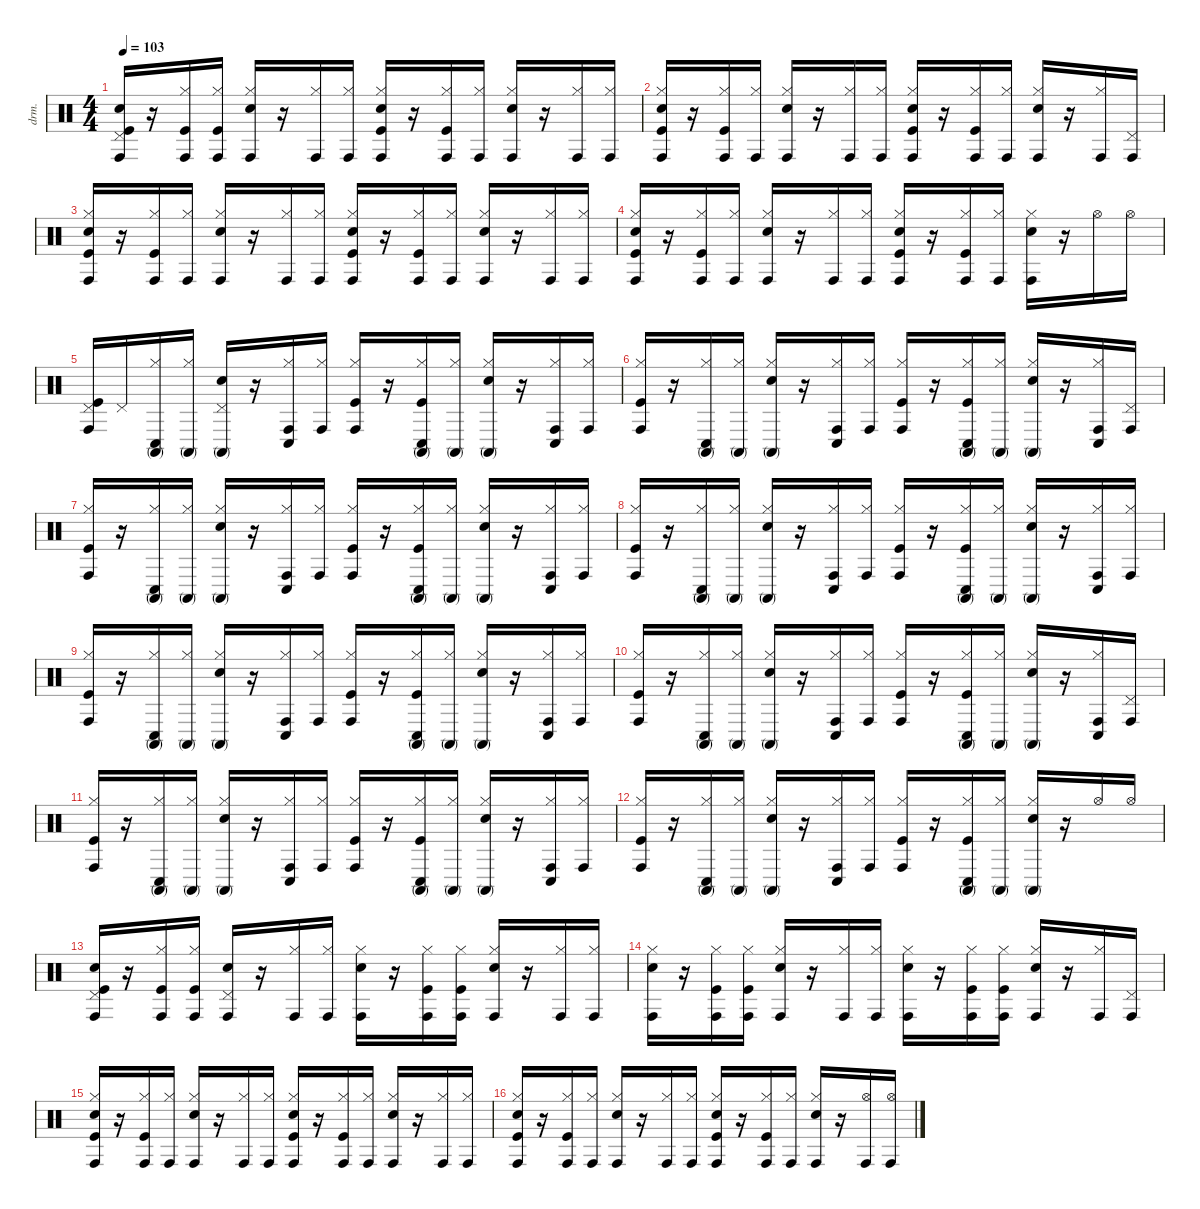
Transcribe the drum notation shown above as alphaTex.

\defaultSystemsLayout 4
\hideDynamics
\bracketExtendMode nobrackets
\otherSystemsTrackNameOrientation horizontal
\track ("drums" "drm.") {instrument percussion}
\staff {score}
\articulation defaults
\ts (4 4)
\tempo 103
\clef neutral
\ks c
("Kick (hit)" "Snare (hit) 2" "Pedal Hi-Hat (hit)" "Conga high (hit)").16{dy f} r.16 ("Kick (hit)" "Hi-Hat (closed)" "Conga high (hit)").16 ("Kick (hit)" "Hi-Hat (closed)" "Conga high (hit)").16 ("Snare (hit) 2" "Hi-Hat (closed)" "Conga high (hit)").16 r.16 ("Hi-Hat (closed)" "Conga high (hit)").16 ("Hi-Hat (closed)" "Conga high (hit)").16 ("Kick (hit)" "Snare (hit) 2" "Hi-Hat (closed)" "Conga high (hit)").16 r.16 ("Kick (hit)" "Hi-Hat (closed)" "Conga high (hit)").16 ("Hi-Hat (closed)" "Conga high (hit)").16 ("Snare (hit) 2" "Hi-Hat (closed)" "Conga high (hit)").16 r.16 ("Hi-Hat (closed)" "Conga high (hit)").16 ("Hi-Hat (closed)" "Conga high (hit)").16 |
("Kick (hit)" "Snare (hit) 2" "Hi-Hat (closed)" "Conga high (hit)").16 r.16 ("Kick (hit)" "Hi-Hat (closed)" "Conga high (hit)").16 ("Hi-Hat (closed)" "Conga high (hit)").16 ("Snare (hit) 2" "Hi-Hat (closed)" "Conga high (hit)").16 r.16 ("Hi-Hat (closed)" "Conga high (hit)").16 ("Hi-Hat (closed)" "Conga high (hit)").16 ("Kick (hit)" "Snare (hit) 2" "Hi-Hat (closed)" "Conga high (hit)").16 r.16 ("Kick (hit)" "Hi-Hat (closed)" "Conga high (hit)").16 ("Hi-Hat (closed)" "Conga high (hit)").16 ("Snare (hit) 2" "Hi-Hat (closed)" "Conga high (hit)").16 r.16 ("Hi-Hat (closed)" "Conga high (hit)").16 ("Pedal Hi-Hat (hit)" "Conga high (hit)").16 |
("Kick (hit)" "Snare (hit) 2" "Hi-Hat (closed)" "Conga high (hit)").16 r.16 ("Kick (hit)" "Hi-Hat (closed)" "Conga high (hit)").16 ("Hi-Hat (closed)" "Conga high (hit)").16 ("Snare (hit) 2" "Hi-Hat (closed)" "Conga high (hit)").16 r.16 ("Hi-Hat (closed)" "Conga high (hit)").16 ("Hi-Hat (closed)" "Conga high (hit)").16 ("Kick (hit)" "Snare (hit) 2" "Hi-Hat (closed)" "Conga high (hit)").16 r.16 ("Kick (hit)" "Hi-Hat (closed)" "Conga high (hit)").16 ("Hi-Hat (closed)" "Conga high (hit)").16 ("Snare (hit) 2" "Hi-Hat (closed)" "Conga high (hit)").16 r.16 ("Hi-Hat (closed)" "Conga high (hit)").16 ("Hi-Hat (closed)" "Conga high (hit)").16 |
("Kick (hit)" "Snare (hit) 2" "Hi-Hat (closed)" "Conga high (hit)").16 r.16 ("Kick (hit)" "Hi-Hat (closed)" "Conga high (hit)").16 ("Hi-Hat (closed)" "Conga high (hit)").16 ("Snare (hit) 2" "Hi-Hat (closed)" "Conga high (hit)").16 r.16 ("Hi-Hat (closed)" "Conga high (hit)").16 ("Hi-Hat (closed)" "Conga high (hit)").16 ("Kick (hit)" "Snare (hit) 2" "Hi-Hat (closed)" "Conga high (hit)").16 r.16 ("Kick (hit)" "Hi-Hat (closed)" "Conga high (hit)").16 ("Hi-Hat (closed)" "Conga high (hit)").16 ("Hi-Hat (closed)" "Conga high (hit)" "Snare (hit) 2").16 r.16 "Hi-Hat (open)".16 "Hi-Hat (open)".16 |
("Kick (hit)" "Pedal Hi-Hat (hit)" "Conga high (hit)").16 "Pedal Hi-Hat (hit)".16 ("Conga high (mute)" "Conga low (hit)" "Hi-Hat (closed)").16 ("Conga high (mute)" "Hi-Hat (closed)").16 ("Conga high (mute)" "Snare (hit) 2" "Pedal Hi-Hat (hit)").16 r.16 ("Hi-Hat (closed)" "Conga low (hit)" "Conga high (hit)").16 ("Hi-Hat (closed)" "Conga high (hit)").16 ("Kick (hit)" "Hi-Hat (closed)" "Conga high (hit)").16 r.16 ("Kick (hit)" "Conga low (hit)" "Conga high (mute)" "Hi-Hat (closed)").16 ("Conga high (mute)" "Hi-Hat (closed)").16 ("Conga high (mute)" "Snare (hit) 2" "Hi-Hat (closed)").16 r.16 ("Hi-Hat (closed)" "Conga low (hit)" "Conga high (hit)").16 ("Hi-Hat (closed)" "Conga high (hit)").16 |
("Kick (hit)" "Hi-Hat (closed)" "Conga high (hit)").16 r.16 ("Conga low (hit)" "Conga high (mute)" "Hi-Hat (closed)").16 ("Conga high (mute)" "Hi-Hat (closed)").16 ("Conga high (mute)" "Snare (hit) 2" "Hi-Hat (closed)").16 r.16 ("Hi-Hat (closed)" "Conga low (hit)" "Conga high (hit)").16 ("Hi-Hat (closed)" "Conga high (hit)").16 ("Kick (hit)" "Hi-Hat (closed)" "Conga high (hit)").16 r.16 ("Kick (hit)" "Conga low (hit)" "Conga high (mute)" "Hi-Hat (closed)").16 ("Conga high (mute)" "Hi-Hat (closed)").16 ("Conga high (mute)" "Snare (hit) 2" "Hi-Hat (closed)").16 r.16 ("Hi-Hat (closed)" "Conga low (hit)" "Conga high (hit)").16 ("Pedal Hi-Hat (hit)" "Conga high (hit)").16 |
("Kick (hit)" "Hi-Hat (closed)" "Conga high (hit)").16 r.16 ("Conga low (hit)" "Conga high (mute)" "Hi-Hat (closed)").16 ("Conga high (mute)" "Hi-Hat (closed)").16 ("Conga high (mute)" "Snare (hit) 2" "Hi-Hat (closed)").16 r.16 ("Hi-Hat (closed)" "Conga low (hit)" "Conga high (hit)").16 ("Hi-Hat (closed)" "Conga high (hit)").16 ("Kick (hit)" "Hi-Hat (closed)" "Conga high (hit)").16 r.16 ("Kick (hit)" "Conga low (hit)" "Conga high (mute)" "Hi-Hat (closed)").16 ("Conga high (mute)" "Hi-Hat (closed)").16 ("Conga high (mute)" "Snare (hit) 2" "Hi-Hat (closed)").16 r.16 ("Hi-Hat (closed)" "Conga low (hit)" "Conga high (hit)").16 ("Hi-Hat (closed)" "Conga high (hit)").16 |
("Kick (hit)" "Hi-Hat (closed)" "Conga high (hit)").16 r.16 ("Conga low (hit)" "Conga high (mute)" "Hi-Hat (closed)").16 ("Conga high (mute)" "Hi-Hat (closed)").16 ("Conga high (mute)" "Snare (hit) 2" "Hi-Hat (closed)").16 r.16 ("Hi-Hat (closed)" "Conga low (hit)" "Conga high (hit)").16 ("Hi-Hat (closed)" "Conga high (hit)").16 ("Kick (hit)" "Hi-Hat (closed)" "Conga high (hit)").16 r.16 ("Kick (hit)" "Conga low (hit)" "Conga high (mute)" "Hi-Hat (closed)").16 ("Conga high (mute)" "Hi-Hat (closed)").16 ("Conga high (mute)" "Snare (hit) 2" "Hi-Hat (closed)").16 r.16 ("Hi-Hat (closed)" "Conga low (hit)" "Conga high (hit)").16 ("Hi-Hat (closed)" "Conga high (hit)").16 |
("Kick (hit)" "Hi-Hat (closed)" "Conga high (hit)").16 r.16 ("Conga low (hit)" "Conga high (mute)" "Hi-Hat (closed)").16 ("Conga high (mute)" "Hi-Hat (closed)").16 ("Conga high (mute)" "Snare (hit) 2" "Hi-Hat (closed)").16 r.16 ("Hi-Hat (closed)" "Conga low (hit)" "Conga high (hit)").16 ("Hi-Hat (closed)" "Conga high (hit)").16 ("Kick (hit)" "Hi-Hat (closed)" "Conga high (hit)").16 r.16 ("Kick (hit)" "Conga low (hit)" "Conga high (mute)" "Hi-Hat (closed)").16 ("Conga high (mute)" "Hi-Hat (closed)").16 ("Conga high (mute)" "Snare (hit) 2" "Hi-Hat (closed)").16 r.16 ("Hi-Hat (closed)" "Conga low (hit)" "Conga high (hit)").16 ("Hi-Hat (closed)" "Conga high (hit)").16 |
("Kick (hit)" "Hi-Hat (closed)" "Conga high (hit)").16 r.16 ("Conga low (hit)" "Conga high (mute)" "Hi-Hat (closed)").16 ("Conga high (mute)" "Hi-Hat (closed)").16 ("Conga high (mute)" "Snare (hit) 2" "Hi-Hat (closed)").16 r.16 ("Hi-Hat (closed)" "Conga low (hit)" "Conga high (hit)").16 ("Hi-Hat (closed)" "Conga high (hit)").16 ("Kick (hit)" "Hi-Hat (closed)" "Conga high (hit)").16 r.16 ("Kick (hit)" "Conga low (hit)" "Conga high (mute)" "Hi-Hat (closed)").16 ("Conga high (mute)" "Hi-Hat (closed)").16 ("Conga high (mute)" "Snare (hit) 2" "Hi-Hat (closed)").16 r.16 ("Hi-Hat (closed)" "Conga low (hit)" "Conga high (hit)").16 ("Pedal Hi-Hat (hit)" "Conga high (hit)").16 |
("Kick (hit)" "Hi-Hat (closed)" "Conga high (hit)").16 r.16 ("Conga low (hit)" "Conga high (mute)" "Hi-Hat (closed)").16 ("Conga high (mute)" "Hi-Hat (closed)").16 ("Conga high (mute)" "Snare (hit) 2" "Hi-Hat (closed)").16 r.16 ("Hi-Hat (closed)" "Conga low (hit)" "Conga high (hit)").16 ("Hi-Hat (closed)" "Conga high (hit)").16 ("Kick (hit)" "Hi-Hat (closed)" "Conga high (hit)").16 r.16 ("Kick (hit)" "Conga low (hit)" "Conga high (mute)" "Hi-Hat (closed)").16 ("Conga high (mute)" "Hi-Hat (closed)").16 ("Conga high (mute)" "Snare (hit) 2" "Hi-Hat (closed)").16 r.16 ("Hi-Hat (closed)" "Conga low (hit)" "Conga high (hit)").16 ("Hi-Hat (closed)" "Conga high (hit)").16 |
("Kick (hit)" "Hi-Hat (closed)" "Conga high (hit)").16 r.16 ("Conga low (hit)" "Conga high (mute)" "Hi-Hat (closed)").16 ("Conga high (mute)" "Hi-Hat (closed)").16 ("Conga high (mute)" "Snare (hit) 2" "Hi-Hat (closed)").16 r.16 ("Conga low (hit)" "Hi-Hat (closed)" "Conga high (hit)").16 ("Hi-Hat (closed)" "Conga high (hit)").16 ("Kick (hit)" "Hi-Hat (closed)" "Conga high (hit)").16 r.16 ("Conga low (hit)" "Conga high (mute)" "Kick (hit)" "Hi-Hat (closed)").16 ("Conga high (mute)" "Hi-Hat (closed)").16 ("Conga high (mute)" "Hi-Hat (closed)" "Snare (hit) 2").16 r.16 "Hi-Hat (open)".16 "Hi-Hat (open)".16 |
("Kick (hit)" "Snare (hit) 2" "Pedal Hi-Hat (hit)" "Conga high (hit)").16 r.16 ("Kick (hit)" "Hi-Hat (closed)" "Conga high (hit)").16 ("Kick (hit)" "Hi-Hat (closed)" "Conga high (hit)").16 ("Snare (hit) 2" "Pedal Hi-Hat (hit)" "Conga high (hit)").16 r.16 ("Hi-Hat (closed)" "Conga high (hit)").16 ("Hi-Hat (closed)" "Conga high (hit)").16 ("Snare (hit) 2" "Hi-Hat (closed)" "Conga high (hit)").16 r.16 ("Kick (hit)" "Hi-Hat (closed)" "Conga high (hit)").16 ("Kick (hit)" "Hi-Hat (closed)" "Conga high (hit)").16 ("Snare (hit) 2" "Hi-Hat (closed)" "Conga high (hit)").16 r.16 ("Hi-Hat (closed)" "Conga high (hit)").16 ("Hi-Hat (closed)" "Conga high (hit)").16 |
("Hi-Hat (closed)" "Conga high (hit)" "Snare (hit) 2").16 r.16 ("Kick (hit)" "Hi-Hat (closed)" "Conga high (hit)").16 ("Kick (hit)" "Hi-Hat (closed)" "Conga high (hit)").16 ("Snare (hit) 2" "Hi-Hat (closed)" "Conga high (hit)").16 r.16 ("Hi-Hat (closed)" "Conga high (hit)").16 ("Hi-Hat (closed)" "Conga high (hit)").16 ("Hi-Hat (closed)" "Conga high (hit)" "Snare (hit) 2").16 r.16 ("Kick (hit)" "Hi-Hat (closed)" "Conga high (hit)").16 ("Kick (hit)" "Hi-Hat (closed)" "Conga high (hit)").16 ("Snare (hit) 2" "Hi-Hat (closed)" "Conga high (hit)").16 r.16 ("Hi-Hat (closed)" "Conga high (hit)").16 ("Pedal Hi-Hat (hit)" "Conga high (hit)").16 |
("Kick (hit)" "Hi-Hat (closed)" "Conga high (hit)" "Snare (hit) 2").16 r.16 ("Kick (hit)" "Hi-Hat (closed)" "Conga high (hit)").16 ("Hi-Hat (closed)" "Conga high (hit)").16 ("Snare (hit) 2" "Hi-Hat (closed)" "Conga high (hit)").16 r.16 ("Hi-Hat (closed)" "Conga high (hit)").16 ("Hi-Hat (closed)" "Conga high (hit)").16 ("Kick (hit)" "Hi-Hat (closed)" "Conga high (hit)" "Snare (hit) 2").16 r.16 ("Kick (hit)" "Hi-Hat (closed)" "Conga high (hit)").16 ("Hi-Hat (closed)" "Conga high (hit)").16 ("Snare (hit) 2" "Hi-Hat (closed)" "Conga high (hit)").16 r.16 ("Hi-Hat (closed)" "Conga high (hit)").16 ("Hi-Hat (closed)" "Conga high (hit)").16 |
("Kick (hit)" "Snare (hit) 2" "Hi-Hat (closed)" "Conga high (hit)").16 r.16 ("Kick (hit)" "Hi-Hat (closed)" "Conga high (hit)").16 ("Hi-Hat (closed)" "Conga high (hit)").16 ("Snare (hit) 2" "Hi-Hat (closed)" "Conga high (hit)").16 r.16 ("Hi-Hat (closed)" "Conga high (hit)").16 ("Hi-Hat (closed)" "Conga high (hit)").16 ("Kick (hit)" "Snare (hit) 2" "Hi-Hat (closed)" "Conga high (hit)").16 r.16 ("Kick (hit)" "Hi-Hat (closed)" "Conga high (hit)").16 ("Hi-Hat (closed)" "Conga high (hit)").16 ("Snare (hit) 2" "Hi-Hat (closed)" "Conga high (hit)").16 r.16 ("Hi-Hat (open)" "Conga high (hit)").16 ("Hi-Hat (open)" "Conga high (hit)").16
